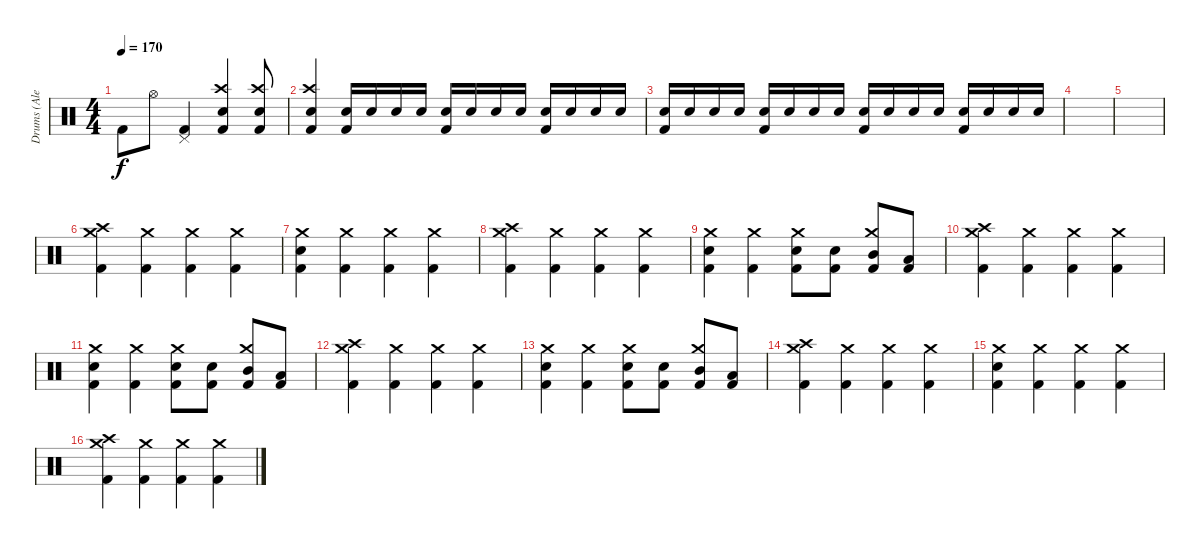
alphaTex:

\track ("Drums (Alex Shelnutt)" "Drums (Ale") {instrument percussion}
\staff {score}
\articulation defaults
\ts (4 4)
\tempo 170
\clef neutral
\ks c "Kick (hit) 2".8{dy f} "Hi-Hat (open)".8
("Pedal Hi-Hat (hit)" "Kick (hit) 2").4 ("Crash high (hit)" "Electric Snare (hit)" "Kick (hit) 2").4 ("Crash high (hit)" "Electric Snare (hit)" "Kick (hit) 2").8 |
("Crash high (hit)" "Electric Snare (hit)" "Kick (hit) 2").4 ("Electric Snare (hit)" "Kick (hit) 2").16 "Electric Snare (hit)".16 "Electric Snare (hit)".16 "Electric Snare (hit)".16 ("Electric Snare (hit)" "Kick (hit) 2").16 "Electric Snare (hit)".16 "Electric Snare (hit)".16 "Electric Snare (hit)".16 ("Electric Snare (hit)" "Kick (hit) 2").16 "Electric Snare (hit)".16 "Electric Snare (hit)".16 "Electric Snare (hit)".16 |
("Electric Snare (hit)" "Kick (hit) 2").16 "Electric Snare (hit)".16 "Electric Snare (hit)".16 "Electric Snare (hit)".16 ("Electric Snare (hit)" "Kick (hit) 2").16 "Electric Snare (hit)".16 "Electric Snare (hit)".16 "Electric Snare (hit)".16 ("Electric Snare (hit)" "Kick (hit) 2").16 "Electric Snare (hit)".16 "Electric Snare (hit)".16 "Electric Snare (hit)".16 ("Electric Snare (hit)" "Kick (hit) 2").16 "Electric Snare (hit)".16 "Electric Snare (hit)".16 "Electric Snare (hit)".16 |
|
|
("Crash high (hit)" "Crash medium (hit)" "Kick (hit) 2").4 ("Crash medium (hit)" "Kick (hit) 2").4 ("Crash medium (hit)" "Kick (hit) 2").4 ("Crash medium (hit)" "Kick (hit) 2").4 |
("Crash medium (hit)" "Electric Snare (hit)" "Kick (hit) 2").4 ("Crash medium (hit)" "Kick (hit) 2").4 ("Crash medium (hit)" "Kick (hit) 2").4 ("Crash medium (hit)" "Kick (hit) 2").4 |
("Crash high (hit)" "Crash medium (hit)" "Kick (hit) 2").4 ("Crash medium (hit)" "Kick (hit) 2").4 ("Crash medium (hit)" "Kick (hit) 2").4 ("Crash medium (hit)" "Kick (hit) 2").4 |
("Crash medium (hit)" "Electric Snare (hit)" "Kick (hit) 2").4 ("Crash medium (hit)" "Kick (hit) 2").4 ("Crash medium (hit)" "Electric Snare (hit)" "Kick (hit) 2").8 ("Electric Snare (hit)" "Kick (hit) 2").8 ("Crash medium (hit)" "Mid Tom (hit)" "Kick (hit) 2").8 ("Low Tom (hit)" "Kick (hit) 2").8 |
("Crash high (hit)" "Crash medium (hit)" "Kick (hit) 2").4 ("Crash medium (hit)" "Kick (hit) 2").4 ("Crash medium (hit)" "Kick (hit) 2").4 ("Crash medium (hit)" "Kick (hit) 2").4 |
("Crash medium (hit)" "Electric Snare (hit)" "Kick (hit) 2").4 ("Crash medium (hit)" "Kick (hit) 2").4 ("Crash medium (hit)" "Electric Snare (hit)" "Kick (hit) 2").8 ("Electric Snare (hit)" "Kick (hit) 2").8 ("Crash medium (hit)" "Mid Tom (hit)" "Kick (hit) 2").8 ("Low Tom (hit)" "Kick (hit) 2").8 |
("Crash high (hit)" "Crash medium (hit)" "Kick (hit) 2").4 ("Crash medium (hit)" "Kick (hit) 2").4 ("Crash medium (hit)" "Kick (hit) 2").4 ("Crash medium (hit)" "Kick (hit) 2").4 |
("Crash medium (hit)" "Electric Snare (hit)" "Kick (hit) 2").4 ("Crash medium (hit)" "Kick (hit) 2").4 ("Crash medium (hit)" "Electric Snare (hit)" "Kick (hit) 2").8 ("Electric Snare (hit)" "Kick (hit) 2").8 ("Crash medium (hit)" "Mid Tom (hit)" "Kick (hit) 2").8 ("Low Tom (hit)" "Kick (hit) 2").8 |
("Crash high (hit)" "Crash medium (hit)" "Kick (hit) 2").4 ("Crash medium (hit)" "Kick (hit) 2").4 ("Crash medium (hit)" "Kick (hit) 2").4 ("Crash medium (hit)" "Kick (hit) 2").4 |
("Crash medium (hit)" "Electric Snare (hit)" "Kick (hit) 2").4 ("Crash medium (hit)" "Kick (hit) 2").4 ("Crash medium (hit)" "Kick (hit) 2").4 ("Crash medium (hit)" "Kick (hit) 2").4 |
("Crash high (hit)" "Crash medium (hit)" "Kick (hit) 2").4 ("Crash medium (hit)" "Kick (hit) 2").4 ("Crash medium (hit)" "Kick (hit) 2").4 ("Crash medium (hit)" "Kick (hit) 2").4
